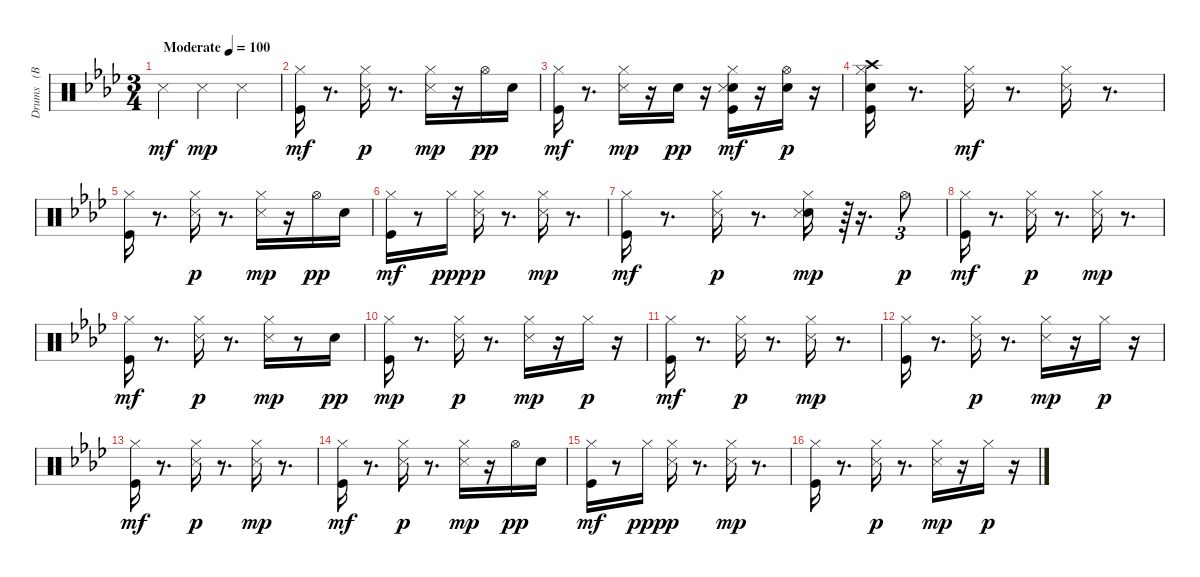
\track ("Drums   (BB)" "Drums   (B") {instrument percussion}
\staff {score}
\articulation defaults
\ts (3 4)
\tempo (100 "Moderate")
\clef neutral
\ks fminor "Snare (side stick) 3".4{dy mf} "Snare (side stick) 3".4{dy mp} "Snare (side stick) 3".4
|
("Kick (hit)" "Hi-Hat (closed)").16{dy mf} r.8{d} ("Hi-Hat (closed)" "Snare (side stick) 3").16{dy p} r.8{d} ("Hi-Hat (closed)" "Snare (side stick) 3").16{dy mp} r.16 "Hi-Hat (open)".16{dy pp} "Snare (hit) 2".16 |
("Kick (hit)" "Hi-Hat (closed)").16{dy mf} r.8{d} ("Hi-Hat (closed)" "Snare (side stick) 3").16{dy mp} r.16 "Snare (hit) 2".16{dy pp} r.16 ("Kick (hit)" "Snare (hit) 2" "Hi-Hat (closed)" "Snare (side stick) 3").16{dy mf} r.16 ("Snare (hit) 2" "Hi-Hat (open)").16{dy p} r.16 |
("Kick (hit)" "Snare (hit) 2" "Hi-Hat (closed)" "Crash high (hit)").16 r.8{d} ("Hi-Hat (closed)" "Snare (side stick) 3").16{dy mf} r.8{d} ("Hi-Hat (closed)" "Snare (side stick) 3").16 r.8{d} |
("Kick (hit)" "Hi-Hat (closed)").16 r.8{d} ("Hi-Hat (closed)" "Snare (side stick) 3").16{dy p} r.8{d} ("Hi-Hat (closed)" "Snare (side stick) 3").16{dy mp} r.16 "Hi-Hat (open)".16{dy pp} "Snare (hit) 2".16 |
("Kick (hit)" "Hi-Hat (closed)").16{dy mf} r.8 "Hi-Hat (closed)".16{dy ppp} ("Hi-Hat (closed)" "Snare (side stick) 3").16{dy p} r.8{d} ("Hi-Hat (closed)" "Snare (side stick) 3").16{dy mp} r.8{d} |
("Kick (hit)" "Hi-Hat (closed)").16{dy mf} r.8{d} ("Hi-Hat (closed)" "Snare (side stick) 3").16{dy p} r.8{d} ("Snare (hit) 2" "Hi-Hat (closed)" "Snare (side stick) 3").16{dy mp} r.64{tu (3 2)} r.16{d} "Hi-Hat (open)".8{tu (3 2) dy p} |
("Kick (hit)" "Hi-Hat (closed)").16{dy mf} r.8{d} ("Hi-Hat (closed)" "Snare (side stick) 3").16{dy p} r.8{d} ("Hi-Hat (closed)" "Snare (side stick) 3").16{dy mp} r.8{d} |
("Kick (hit)" "Hi-Hat (closed)").16{dy mf} r.8{d} ("Hi-Hat (closed)" "Snare (side stick) 3").16{dy p} r.8{d} ("Hi-Hat (closed)" "Snare (side stick) 3").16{dy mp} r.8 "Snare (hit) 2".16{dy pp} |
("Kick (hit)" "Hi-Hat (closed)").16{dy mp} r.8{d} ("Hi-Hat (closed)" "Snare (side stick) 3").16{dy p} r.8{d} ("Hi-Hat (closed)" "Snare (side stick) 3").16{dy mp} r.16 "Hi-Hat (closed)".16{dy p} r.16 |
("Kick (hit)" "Hi-Hat (closed)").16{dy mf} r.8{d} ("Hi-Hat (closed)" "Snare (side stick) 3").16{dy p} r.8{d} ("Hi-Hat (closed)" "Snare (side stick) 3").16{dy mp} r.8{d} |
("Kick (hit)" "Hi-Hat (closed)").16 r.8{d} ("Hi-Hat (closed)" "Snare (side stick) 3").16{dy p} r.8{d} ("Hi-Hat (closed)" "Snare (side stick) 3").16{dy mp} r.16 "Hi-Hat (closed)".16{dy p} r.16 |
("Kick (hit)" "Hi-Hat (closed)").16{dy mf} r.8{d} ("Hi-Hat (closed)" "Snare (side stick) 3").16{dy p} r.8{d} ("Hi-Hat (closed)" "Snare (side stick) 3").16{dy mp} r.8{d} |
("Kick (hit)" "Hi-Hat (closed)").16{dy mf} r.8{d} ("Hi-Hat (closed)" "Snare (side stick) 3").16{dy p} r.8{d} ("Hi-Hat (closed)" "Snare (side stick) 3").16{dy mp} r.16 "Hi-Hat (open)".16{dy pp} "Snare (hit) 2".16 |
("Kick (hit)" "Hi-Hat (closed)").16{dy mf} r.8 "Hi-Hat (closed)".16{dy ppp} ("Hi-Hat (closed)" "Snare (side stick) 3").16{dy p} r.8{d} ("Hi-Hat (closed)" "Snare (side stick) 3").16{dy mp} r.8{d} |
("Kick (hit)" "Hi-Hat (closed)").16 r.8{d} ("Hi-Hat (closed)" "Snare (side stick) 3").16{dy p} r.8{d} ("Hi-Hat (closed)" "Snare (side stick) 3").16{dy mp} r.16 "Hi-Hat (closed)".16{dy p} r.16
